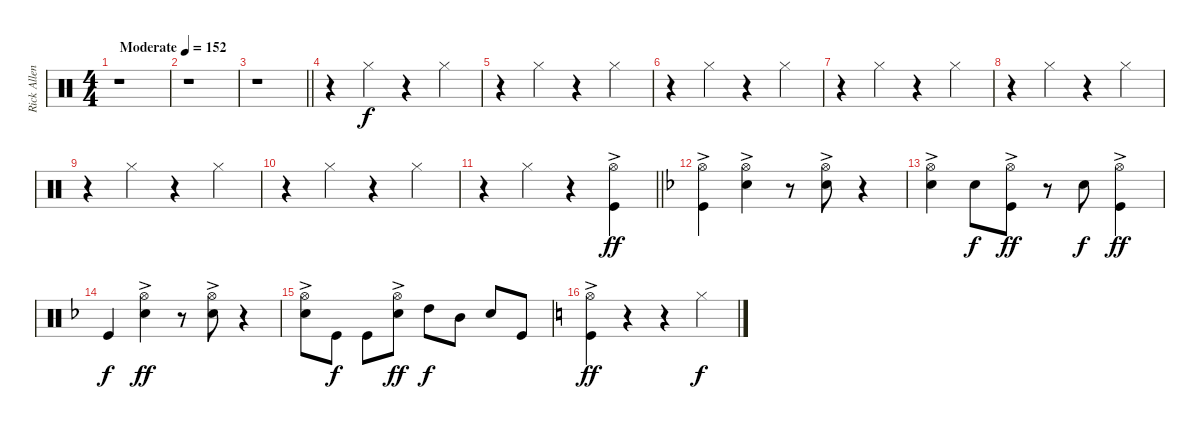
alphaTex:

\track ("Rick Allen" "Rick Allen") {instrument percussion}
\staff {score}
\articulation defaults
\ts (4 4)
\tempo (152 "Moderate")
\clef neutral
\ks c
r.1{dy f} |
r.1 |
\barLineRight lightlight
r.1 |
r.4 "Hi-Hat (closed)".4 r.4 "Hi-Hat (closed)".4 |
r.4 "Hi-Hat (closed)".4 r.4 "Hi-Hat (closed)".4 |
r.4 "Hi-Hat (closed)".4 r.4 "Hi-Hat (closed)".4 |
r.4 "Hi-Hat (closed)".4 r.4 "Hi-Hat (closed)".4 |
r.4 "Hi-Hat (closed)".4 r.4 "Hi-Hat (closed)".4 |
r.4 "Hi-Hat (closed)".4 r.4 "Hi-Hat (closed)".4 |
r.4 "Hi-Hat (closed)".4 r.4 "Hi-Hat (closed)".4 |
\barLineRight lightlight
r.4 "Hi-Hat (closed)".4 r.4 ("Hi-Hat (open)"{ac} "Kick (hit)").4{dy ff} |
\ks f
("Hi-Hat (open)"{ac} "Kick (hit)").4 ("Hi-Hat (open)"{ac} "Snare (hit) 2").4 r.8 ("Hi-Hat (open)"{ac} "Snare (hit) 2").8 r.4 |
("Hi-Hat (open)"{ac} "Snare (hit) 2").4 "Snare (hit) 2".8{dy f} ("Hi-Hat (open)"{ac} "Kick (hit)").8{dy ff} r.8 "Snare (hit) 2".8{dy f} ("Hi-Hat (open)"{ac} "Kick (hit)").4{dy ff} |
"Kick (hit)".4{dy f} ("Hi-Hat (open)"{ac} "Snare (hit) 2").4{dy ff} r.8 ("Hi-Hat (open)"{ac} "Snare (hit) 2").8 r.4 |
\ks dminor
("Hi-Hat (open)"{ac} "Snare (hit) 2").8 "Kick (hit)".8{dy f} "Kick (hit)".8 ("Hi-Hat (open)"{ac} "Snare (hit) 2").8{dy ff} "High Tom (hit)".8{dy f} "Mid Tom (hit)".8 "Snare (hit) 2".8 "Kick (hit)".8 |
\ks aminor
("Hi-Hat (open)"{ac} "Kick (hit)").4{dy ff} r.4 r.4 "Hi-Hat (closed)".4{dy f}
